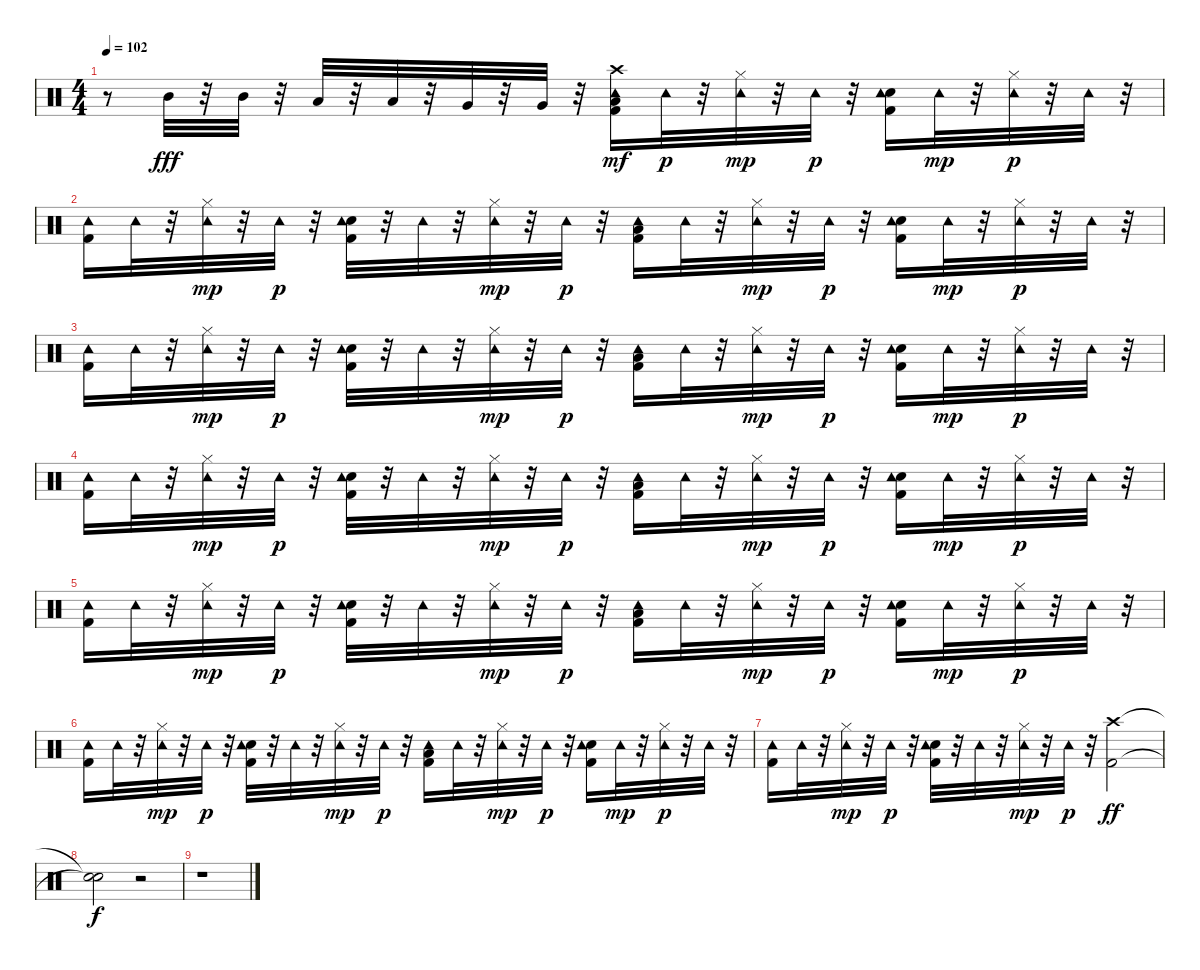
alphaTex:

\track "" {instrument percussion}
\staff {score}
\articulation defaults
\ts (4 4)
\tempo 102
\clef neutral
\ks c
r.8{dy fff} "Mid Tom (hit)".32 r.32 "Mid Tom (hit)".32 r.32 "Low Tom (hit)".32 r.32 "Low Tom (hit)".32 r.32 "Very Low Tom (hit)".32 r.32 "Very Low Tom (hit)".32 r.32 ("Low Floor Tom (hit)" "Kick (hit) 2" "Tambourine (hit)" "Crash high (hit)").16{dy mf} "Tambourine (hit)".32{dy p} r.32 ("Tambourine (hit)" "Hi-Hat (closed)").32{dy mp} r.32 "Tambourine (hit)".32{dy p} r.32 ("Kick (hit) 2" "Snare (hit) 2" "Tambourine (hit)").16 "Tambourine (hit)".32{dy mp} r.32 ("Tambourine (hit)" "Hi-Hat (closed)").32{dy p} r.32 "Tambourine (hit)".32 r.32 |
("Kick (hit) 2" "Tambourine (hit)").16 "Tambourine (hit)".32 r.32 ("Tambourine (hit)" "Hi-Hat (closed)").32{dy mp} r.32 "Tambourine (hit)".32{dy p} r.32 ("Kick (hit) 2" "Snare (hit) 2" "Tambourine (hit)").32 r.32 "Tambourine (hit)".32 r.32 ("Tambourine (hit)" "Hi-Hat (closed)").32{dy mp} r.32 "Tambourine (hit)".32{dy p} r.32 ("Low Floor Tom (hit)" "Kick (hit) 2" "Tambourine (hit)").16 "Tambourine (hit)".32 r.32 ("Tambourine (hit)" "Hi-Hat (closed)").32{dy mp} r.32 "Tambourine (hit)".32{dy p} r.32 ("Kick (hit) 2" "Snare (hit) 2" "Tambourine (hit)").16 "Tambourine (hit)".32{dy mp} r.32 ("Tambourine (hit)" "Hi-Hat (closed)").32{dy p} r.32 "Tambourine (hit)".32 r.32 |
("Kick (hit) 2" "Tambourine (hit)").16 "Tambourine (hit)".32 r.32 ("Tambourine (hit)" "Hi-Hat (closed)").32{dy mp} r.32 "Tambourine (hit)".32{dy p} r.32 ("Kick (hit) 2" "Snare (hit) 2" "Tambourine (hit)").32 r.32 "Tambourine (hit)".32 r.32 ("Tambourine (hit)" "Hi-Hat (closed)").32{dy mp} r.32 "Tambourine (hit)".32{dy p} r.32 ("Low Floor Tom (hit)" "Kick (hit) 2" "Tambourine (hit)").16 "Tambourine (hit)".32 r.32 ("Tambourine (hit)" "Hi-Hat (closed)").32{dy mp} r.32 "Tambourine (hit)".32{dy p} r.32 ("Kick (hit) 2" "Snare (hit) 2" "Tambourine (hit)").16 "Tambourine (hit)".32{dy mp} r.32 ("Tambourine (hit)" "Hi-Hat (closed)").32{dy p} r.32 "Tambourine (hit)".32 r.32 |
("Kick (hit) 2" "Tambourine (hit)").16 "Tambourine (hit)".32 r.32 ("Tambourine (hit)" "Hi-Hat (closed)").32{dy mp} r.32 "Tambourine (hit)".32{dy p} r.32 ("Kick (hit) 2" "Snare (hit) 2" "Tambourine (hit)").32 r.32 "Tambourine (hit)".32 r.32 ("Tambourine (hit)" "Hi-Hat (closed)").32{dy mp} r.32 "Tambourine (hit)".32{dy p} r.32 ("Low Floor Tom (hit)" "Kick (hit) 2" "Tambourine (hit)").16 "Tambourine (hit)".32 r.32 ("Tambourine (hit)" "Hi-Hat (closed)").32{dy mp} r.32 "Tambourine (hit)".32{dy p} r.32 ("Kick (hit) 2" "Snare (hit) 2" "Tambourine (hit)").16 "Tambourine (hit)".32{dy mp} r.32 ("Tambourine (hit)" "Hi-Hat (closed)").32{dy p} r.32 "Tambourine (hit)".32 r.32 |
("Kick (hit) 2" "Tambourine (hit)").16 "Tambourine (hit)".32 r.32 ("Tambourine (hit)" "Hi-Hat (closed)").32{dy mp} r.32 "Tambourine (hit)".32{dy p} r.32 ("Kick (hit) 2" "Snare (hit) 2" "Tambourine (hit)").32 r.32 "Tambourine (hit)".32 r.32 ("Tambourine (hit)" "Hi-Hat (closed)").32{dy mp} r.32 "Tambourine (hit)".32{dy p} r.32 ("Low Floor Tom (hit)" "Kick (hit) 2" "Tambourine (hit)").16 "Tambourine (hit)".32 r.32 ("Tambourine (hit)" "Hi-Hat (closed)").32{dy mp} r.32 "Tambourine (hit)".32{dy p} r.32 ("Kick (hit) 2" "Snare (hit) 2" "Tambourine (hit)").16 "Tambourine (hit)".32{dy mp} r.32 ("Tambourine (hit)" "Hi-Hat (closed)").32{dy p} r.32 "Tambourine (hit)".32 r.32 |
("Kick (hit) 2" "Tambourine (hit)").16 "Tambourine (hit)".32 r.32 ("Tambourine (hit)" "Hi-Hat (closed)").32{dy mp} r.32 "Tambourine (hit)".32{dy p} r.32 ("Kick (hit) 2" "Snare (hit) 2" "Tambourine (hit)").32 r.32 "Tambourine (hit)".32 r.32 ("Tambourine (hit)" "Hi-Hat (closed)").32{dy mp} r.32 "Tambourine (hit)".32{dy p} r.32 ("Low Floor Tom (hit)" "Kick (hit) 2" "Tambourine (hit)").16 "Tambourine (hit)".32 r.32 ("Tambourine (hit)" "Hi-Hat (closed)").32{dy mp} r.32 "Tambourine (hit)".32{dy p} r.32 ("Kick (hit) 2" "Snare (hit) 2" "Tambourine (hit)").16 "Tambourine (hit)".32{dy mp} r.32 ("Tambourine (hit)" "Hi-Hat (closed)").32{dy p} r.32 "Tambourine (hit)".32 r.32 |
("Kick (hit) 2" "Tambourine (hit)").16 "Tambourine (hit)".32 r.32 ("Tambourine (hit)" "Hi-Hat (closed)").32{dy mp} r.32 "Tambourine (hit)".32{dy p} r.32 ("Kick (hit) 2" "Snare (hit) 2" "Tambourine (hit)").32 r.32 "Tambourine (hit)".32 r.32 ("Tambourine (hit)" "Hi-Hat (closed)").32{dy mp} r.32 "Tambourine (hit)".32{dy p} r.32 ("Crash high (hit)" "Kick (hit) 2").2{dy ff} |
("Snare (hit)"{t} "Snare (hit)"{t}).2{dy f} r.2 |
r.1
